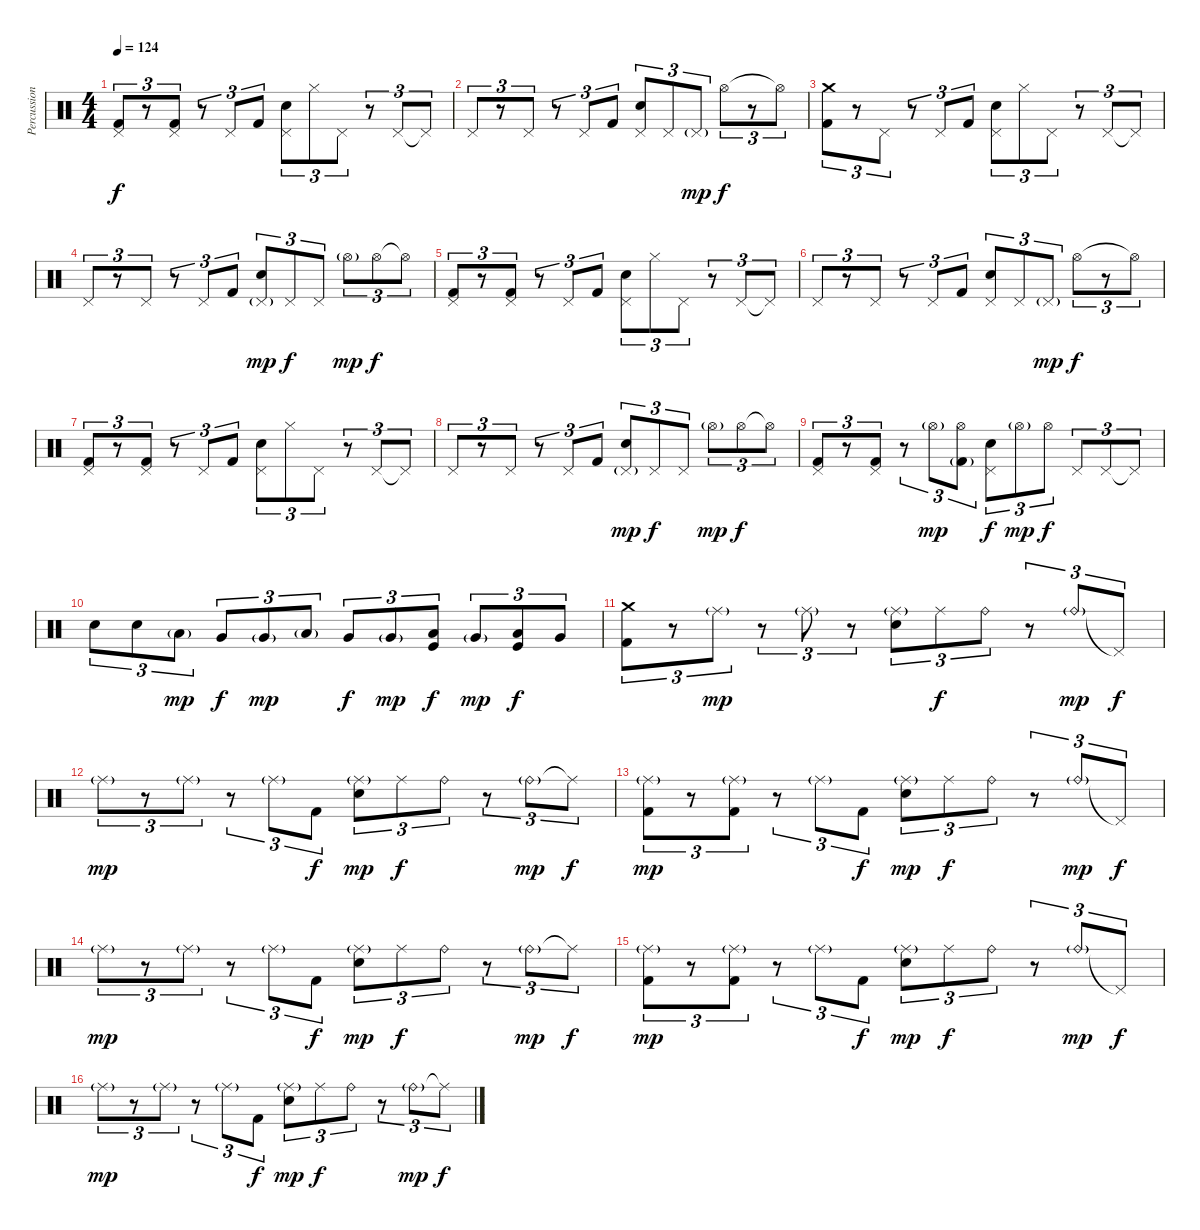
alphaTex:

\track ("Percussions" "Percussion") {instrument percussion}
\staff {score}
\articulation defaults
\ts (4 4)
\tempo 124
\clef neutral
\ks c
("Pedal Hi-Hat (hit)" "Kick (hit) 2").8{tu (3 2) dy f} r.8{tu (3 2)} ("Pedal Hi-Hat (hit)" "Kick (hit) 2").8{tu (3 2)} r.8{tu (3 2)} "Pedal Hi-Hat (hit)".8{tu (3 2)} "Kick (hit) 2".8{tu (3 2)} ("Pedal Hi-Hat (hit)" "Electric Snare (hit)").8{tu (3 2)} "Hi-Hat (closed)".8{tu (3 2)} "Pedal Hi-Hat (hit)".8{tu (3 2)} r.8{tu (3 2)} "Pedal Hi-Hat (hit)".8{tu (3 2)} "Pedal Hi-Hat (hit)"{t}.8{tu (3 2)} |
"Pedal Hi-Hat (hit)".8{tu (3 2)} r.8{tu (3 2)} "Pedal Hi-Hat (hit)".8{tu (3 2)} r.8{tu (3 2)} "Pedal Hi-Hat (hit)".8{tu (3 2)} "Kick (hit) 2".8{tu (3 2)} ("Pedal Hi-Hat (hit)" "Electric Snare (hit)").8{tu (3 2)} "Pedal Hi-Hat (hit)".8{tu (3 2)} "Pedal Hi-Hat (hit)"{g}.8{tu (3 2) dy mp} "Hi-Hat (open)".8{tu (3 2) dy f} r.8{tu (3 2)} "Hi-Hat (open)"{t}.8{tu (3 2)} |
("Crash medium (hit)" "Kick (hit) 2").8{tu (3 2)} r.8{tu (3 2)} "Pedal Hi-Hat (hit)".8{tu (3 2)} r.8{tu (3 2)} "Pedal Hi-Hat (hit)".8{tu (3 2)} "Kick (hit) 2".8{tu (3 2)} ("Pedal Hi-Hat (hit)" "Electric Snare (hit)").8{tu (3 2)} "Hi-Hat (closed)".8{tu (3 2)} "Pedal Hi-Hat (hit)".8{tu (3 2)} r.8{tu (3 2)} "Pedal Hi-Hat (hit)".8{tu (3 2)} "Pedal Hi-Hat (hit)"{t}.8{tu (3 2)} |
"Pedal Hi-Hat (hit)".8{tu (3 2)} r.8{tu (3 2)} "Pedal Hi-Hat (hit)".8{tu (3 2)} r.8{tu (3 2)} "Pedal Hi-Hat (hit)".8{tu (3 2)} "Kick (hit) 2".8{tu (3 2)} ("Pedal Hi-Hat (hit)"{g} "Electric Snare (hit)").8{tu (3 2) dy mp} "Pedal Hi-Hat (hit)".8{tu (3 2) dy f} "Pedal Hi-Hat (hit)".8{tu (3 2)} "Hi-Hat (open)"{g}.8{tu (3 2) dy mp} "Hi-Hat (open)".8{tu (3 2) dy f} "Hi-Hat (open)"{t}.8{tu (3 2)} |
("Pedal Hi-Hat (hit)" "Kick (hit) 2").8{tu (3 2)} r.8{tu (3 2)} ("Pedal Hi-Hat (hit)" "Kick (hit) 2").8{tu (3 2)} r.8{tu (3 2)} "Pedal Hi-Hat (hit)".8{tu (3 2)} "Kick (hit) 2".8{tu (3 2)} ("Pedal Hi-Hat (hit)" "Electric Snare (hit)").8{tu (3 2)} "Hi-Hat (closed)".8{tu (3 2)} "Pedal Hi-Hat (hit)".8{tu (3 2)} r.8{tu (3 2)} "Pedal Hi-Hat (hit)".8{tu (3 2)} "Pedal Hi-Hat (hit)"{t}.8{tu (3 2)} |
"Pedal Hi-Hat (hit)".8{tu (3 2)} r.8{tu (3 2)} "Pedal Hi-Hat (hit)".8{tu (3 2)} r.8{tu (3 2)} "Pedal Hi-Hat (hit)".8{tu (3 2)} "Kick (hit) 2".8{tu (3 2)} ("Pedal Hi-Hat (hit)" "Electric Snare (hit)").8{tu (3 2)} "Pedal Hi-Hat (hit)".8{tu (3 2)} "Pedal Hi-Hat (hit)"{g}.8{tu (3 2) dy mp} "Hi-Hat (open)".8{tu (3 2) dy f} r.8{tu (3 2)} "Hi-Hat (open)"{t}.8{tu (3 2)} |
("Pedal Hi-Hat (hit)" "Kick (hit) 2").8{tu (3 2)} r.8{tu (3 2)} ("Pedal Hi-Hat (hit)" "Kick (hit) 2").8{tu (3 2)} r.8{tu (3 2)} "Pedal Hi-Hat (hit)".8{tu (3 2)} "Kick (hit) 2".8{tu (3 2)} ("Pedal Hi-Hat (hit)" "Electric Snare (hit)").8{tu (3 2)} "Hi-Hat (closed)".8{tu (3 2)} "Pedal Hi-Hat (hit)".8{tu (3 2)} r.8{tu (3 2)} "Pedal Hi-Hat (hit)".8{tu (3 2)} "Pedal Hi-Hat (hit)"{t}.8{tu (3 2)} |
"Pedal Hi-Hat (hit)".8{tu (3 2)} r.8{tu (3 2)} "Pedal Hi-Hat (hit)".8{tu (3 2)} r.8{tu (3 2)} "Pedal Hi-Hat (hit)".8{tu (3 2)} "Kick (hit) 2".8{tu (3 2)} ("Pedal Hi-Hat (hit)"{g} "Electric Snare (hit)").8{tu (3 2) dy mp} "Pedal Hi-Hat (hit)".8{tu (3 2) dy f} "Pedal Hi-Hat (hit)".8{tu (3 2)} "Hi-Hat (open)"{g}.8{tu (3 2) dy mp} "Hi-Hat (open)".8{tu (3 2) dy f} "Hi-Hat (open)"{t}.8{tu (3 2)} |
("Pedal Hi-Hat (hit)" "Kick (hit) 2").8{tu (3 2)} r.8{tu (3 2)} ("Pedal Hi-Hat (hit)" "Kick (hit) 2").8{tu (3 2)} r.8{tu (3 2)} "Hi-Hat (open)"{g}.8{tu (3 2) dy mp} ("Hi-Hat (open)" "Kick (hit) 2"{g}).8{tu (3 2)} ("Pedal Hi-Hat (hit)" "Electric Snare (hit)").8{tu (3 2) dy f} "Hi-Hat (open)"{g}.8{tu (3 2) dy mp} "Hi-Hat (open)".8{tu (3 2) dy f} "Pedal Hi-Hat (hit)".8{tu (3 2)} "Pedal Hi-Hat (hit)".8{tu (3 2)} "Pedal Hi-Hat (hit)"{t}.8{tu (3 2)} |
"Electric Snare (hit)".8{tu (3 2)} "Electric Snare (hit)".8{tu (3 2)} "Low Floor Tom (hit)"{g}.8{tu (3 2) dy mp} "Very Low Tom (hit)".8{tu (3 2) dy f} "Very Low Tom (hit)"{g}.8{tu (3 2) dy mp} "Low Floor Tom (hit)"{g}.8{tu (3 2)} "Very Low Tom (hit)".8{tu (3 2) dy f} "Very Low Tom (hit)"{g}.8{tu (3 2) dy mp} ("Low Floor Tom (hit)" "Kick (hit)").8{tu (3 2) dy f} "Very Low Tom (hit)"{g}.8{tu (3 2) dy mp} ("Low Floor Tom (hit)" "Kick (hit)").8{tu (3 2) dy f} "Very Low Tom (hit)".8{tu (3 2)} |
("Crash medium (hit)" "Kick (hit) 2").8{tu (3 2)} r.8{tu (3 2)} "Ride (middle)"{g}.8{tu (3 2) dy mp} r.8{tu (3 2)} "Ride (middle)"{g}.8{tu (3 2)} r.8{tu (3 2)} ("Ride (middle)"{g} "Electric Snare (hit)").8{tu (3 2)} "Ride (middle)".8{tu (3 2) dy f} "Ride (bell)".8{tu (3 2)} r.8{tu (3 2)} "Ride (bell)"{g}.8{tu (3 2) dy mp} "Pedal Hi-Hat (hit)"{t}.8{tu (3 2) dy f} |
"Ride (middle)"{g}.8{tu (3 2) dy mp} r.8{tu (3 2)} "Ride (middle)"{g}.8{tu (3 2)} r.8{tu (3 2)} "Ride (middle)"{g}.8{tu (3 2)} "Kick (hit) 2".8{tu (3 2) dy f} ("Ride (middle)"{g} "Electric Snare (hit)").8{tu (3 2) dy mp} "Ride (middle)".8{tu (3 2) dy f} "Ride (bell)".8{tu (3 2)} r.8{tu (3 2)} "Ride (bell)"{g}.8{tu (3 2) dy mp} "Ride (middle)"{t}.8{tu (3 2) dy f} |
("Ride (middle)"{g} "Kick (hit) 2").8{tu (3 2) dy mp} r.8{tu (3 2)} ("Ride (middle)"{g} "Kick (hit) 2").8{tu (3 2)} r.8{tu (3 2)} "Ride (middle)"{g}.8{tu (3 2)} "Kick (hit) 2".8{tu (3 2) dy f} ("Ride (middle)"{g} "Electric Snare (hit)").8{tu (3 2) dy mp} "Ride (middle)".8{tu (3 2) dy f} "Ride (bell)".8{tu (3 2)} r.8{tu (3 2)} "Ride (bell)"{g}.8{tu (3 2) dy mp} "Pedal Hi-Hat (hit)"{t}.8{tu (3 2) dy f} |
"Ride (middle)"{g}.8{tu (3 2) dy mp} r.8{tu (3 2)} "Ride (middle)"{g}.8{tu (3 2)} r.8{tu (3 2)} "Ride (middle)"{g}.8{tu (3 2)} "Kick (hit) 2".8{tu (3 2) dy f} ("Ride (middle)"{g} "Electric Snare (hit)").8{tu (3 2) dy mp} "Ride (middle)".8{tu (3 2) dy f} "Ride (bell)".8{tu (3 2)} r.8{tu (3 2)} "Ride (bell)"{g}.8{tu (3 2) dy mp} "Ride (middle)"{t}.8{tu (3 2) dy f} |
("Ride (middle)"{g} "Kick (hit) 2").8{tu (3 2) dy mp} r.8{tu (3 2)} ("Ride (middle)"{g} "Kick (hit) 2").8{tu (3 2)} r.8{tu (3 2)} "Ride (middle)"{g}.8{tu (3 2)} "Kick (hit) 2".8{tu (3 2) dy f} ("Ride (middle)"{g} "Electric Snare (hit)").8{tu (3 2) dy mp} "Ride (middle)".8{tu (3 2) dy f} "Ride (bell)".8{tu (3 2)} r.8{tu (3 2)} "Ride (bell)"{g}.8{tu (3 2) dy mp} "Pedal Hi-Hat (hit)"{t}.8{tu (3 2) dy f} |
"Ride (middle)"{g}.8{tu (3 2) dy mp} r.8{tu (3 2)} "Ride (middle)"{g}.8{tu (3 2)} r.8{tu (3 2)} "Ride (middle)"{g}.8{tu (3 2)} "Kick (hit) 2".8{tu (3 2) dy f} ("Ride (middle)"{g} "Electric Snare (hit)").8{tu (3 2) dy mp} "Ride (middle)".8{tu (3 2) dy f} "Ride (bell)".8{tu (3 2)} r.8{tu (3 2)} "Ride (bell)"{g}.8{tu (3 2) dy mp} "Ride (middle)"{t}.8{tu (3 2) dy f}
